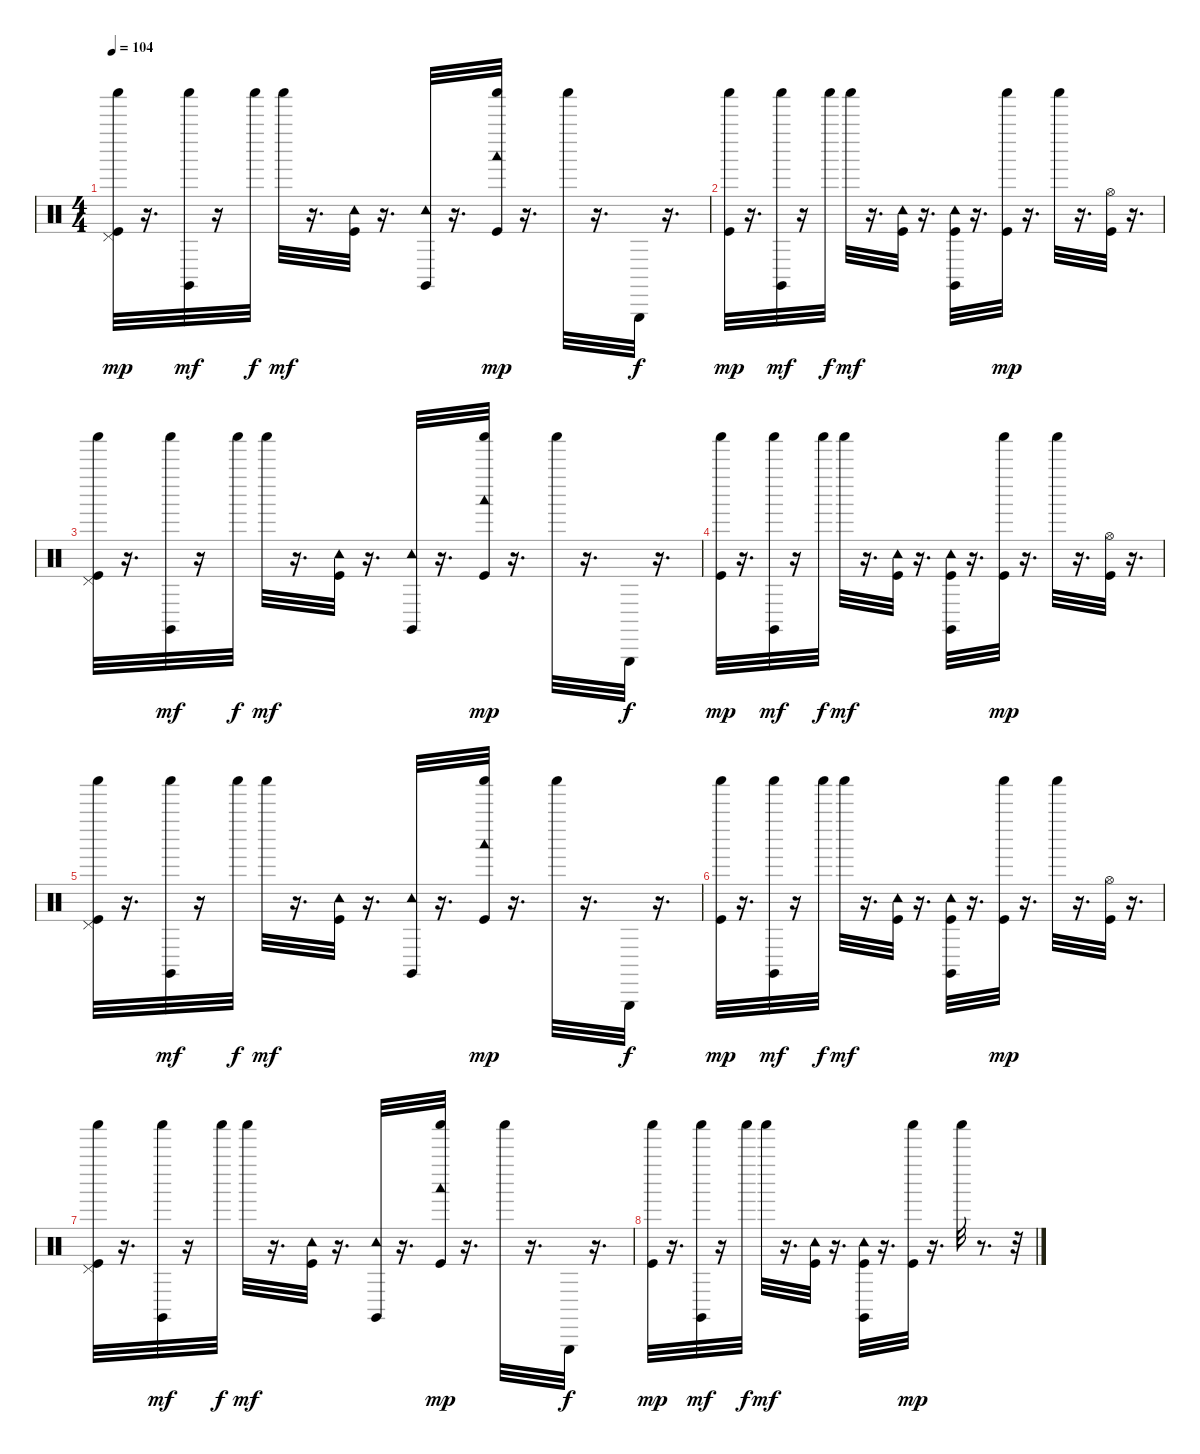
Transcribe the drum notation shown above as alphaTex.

\track "" {instrument percussion}
\staff {score}
\articulation defaults
\ts (4 4)
\tempo 104
\clef neutral
\ks c
("Pedal Hi-Hat (hit)" "Kick (hit)" "Shaker (hit)").32{dy mp} r.16{d} ("Claves (hit)" "Shaker (hit)").32{dy mf} r.16 "Shaker (hit)".32{dy f} "Shaker (hit)".32{dy mf} r.16{d} ("Kick (hit)" "Tambourine (hit)").32 r.16{d} ("Claves (hit)" "Tambourine (hit)").32 r.16{d} ("Woodblock low (hit)" "Kick (hit)" "Shaker (hit)").32{dy mp} r.16{d} "Shaker (hit)".32 r.16{d} "Triangle (hit)".32{dy f} r.16{d} |
("Shaker (hit)" "Kick (hit)").32{dy mp} r.16{d} ("Claves (hit)" "Shaker (hit)").32{dy mf} r.16 "Shaker (hit)".32{dy f} "Shaker (hit)".32{dy mf} r.16{d} ("Kick (hit)" "Tambourine (hit)").32 r.16{d} ("Claves (hit)" "Tambourine (hit)" "Kick (hit)").32 r.16{d} ("Shaker (hit)" "Kick (hit)").32{dy mp} r.16{d} "Shaker (hit)".32 r.16{d} ("Hi-Hat (open)" "Kick (hit)").32 r.16{d} |
("Pedal Hi-Hat (hit)" "Kick (hit)" "Shaker (hit)").32 r.16{d} ("Claves (hit)" "Shaker (hit)").32{dy mf} r.16 "Shaker (hit)".32{dy f} "Shaker (hit)".32{dy mf} r.16{d} ("Kick (hit)" "Tambourine (hit)").32 r.16{d} ("Claves (hit)" "Tambourine (hit)").32 r.16{d} ("Woodblock low (hit)" "Kick (hit)" "Shaker (hit)").32{dy mp} r.16{d} "Shaker (hit)".32 r.16{d} "Triangle (hit)".32{dy f} r.16{d} |
("Shaker (hit)" "Kick (hit)").32{dy mp} r.16{d} ("Claves (hit)" "Shaker (hit)").32{dy mf} r.16 "Shaker (hit)".32{dy f} "Shaker (hit)".32{dy mf} r.16{d} ("Kick (hit)" "Tambourine (hit)").32 r.16{d} ("Claves (hit)" "Tambourine (hit)" "Kick (hit)").32 r.16{d} ("Shaker (hit)" "Kick (hit)").32{dy mp} r.16{d} "Shaker (hit)".32 r.16{d} ("Hi-Hat (open)" "Kick (hit)").32 r.16{d} |
("Pedal Hi-Hat (hit)" "Kick (hit)" "Shaker (hit)").32 r.16{d} ("Claves (hit)" "Shaker (hit)").32{dy mf} r.16 "Shaker (hit)".32{dy f} "Shaker (hit)".32{dy mf} r.16{d} ("Kick (hit)" "Tambourine (hit)").32 r.16{d} ("Claves (hit)" "Tambourine (hit)").32 r.16{d} ("Woodblock low (hit)" "Kick (hit)" "Shaker (hit)").32{dy mp} r.16{d} "Shaker (hit)".32 r.16{d} "Triangle (hit)".32{dy f} r.16{d} |
("Shaker (hit)" "Kick (hit)").32{dy mp} r.16{d} ("Claves (hit)" "Shaker (hit)").32{dy mf} r.16 "Shaker (hit)".32{dy f} "Shaker (hit)".32{dy mf} r.16{d} ("Kick (hit)" "Tambourine (hit)").32 r.16{d} ("Claves (hit)" "Tambourine (hit)" "Kick (hit)").32 r.16{d} ("Shaker (hit)" "Kick (hit)").32{dy mp} r.16{d} "Shaker (hit)".32 r.16{d} ("Hi-Hat (open)" "Kick (hit)").32 r.16{d} |
("Pedal Hi-Hat (hit)" "Kick (hit)" "Shaker (hit)").32 r.16{d} ("Claves (hit)" "Shaker (hit)").32{dy mf} r.16 "Shaker (hit)".32{dy f} "Shaker (hit)".32{dy mf} r.16{d} ("Kick (hit)" "Tambourine (hit)").32 r.16{d} ("Claves (hit)" "Tambourine (hit)").32 r.16{d} ("Woodblock low (hit)" "Kick (hit)" "Shaker (hit)").32{dy mp} r.16{d} "Shaker (hit)".32 r.16{d} "Triangle (hit)".32{dy f} r.16{d} |
("Shaker (hit)" "Kick (hit)").32{dy mp} r.16{d} ("Claves (hit)" "Shaker (hit)").32{dy mf} r.16 "Shaker (hit)".32{dy f} "Shaker (hit)".32{dy mf} r.16{d} ("Kick (hit)" "Tambourine (hit)").32 r.16{d} ("Claves (hit)" "Tambourine (hit)" "Kick (hit)").32 r.16{d} ("Shaker (hit)" "Kick (hit)").32{dy mp} r.16{d} "Shaker (hit)".32 r.8{d} r.32
